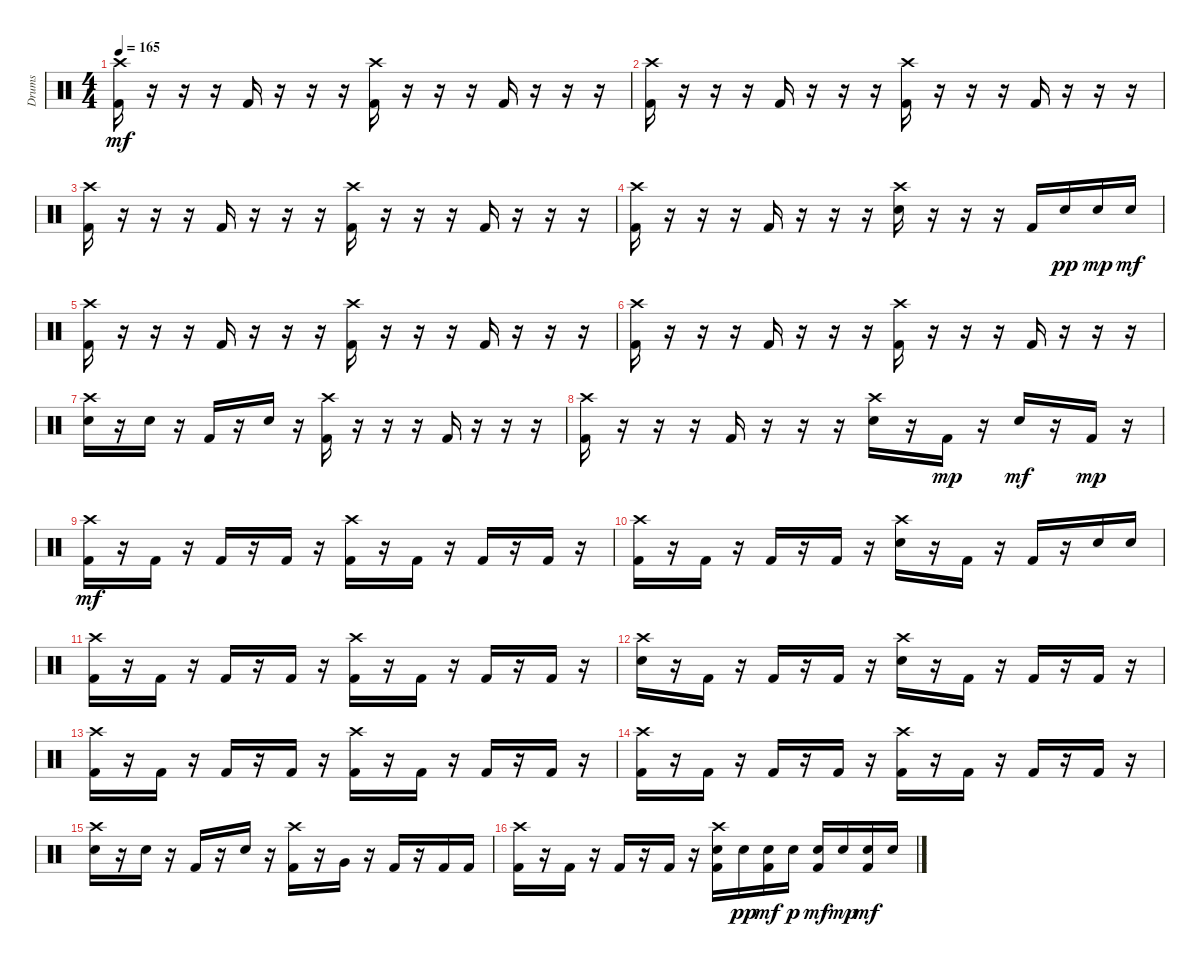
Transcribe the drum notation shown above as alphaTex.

\track ("Drums" "Drums") {instrument percussion}
\staff {score}
\articulation defaults
\ts (4 4)
\tempo 165
\clef neutral
\ks c
("Crash high (hit)" "Kick (hit) 2").16{dy mf} r.16 r.16 r.16 "Kick (hit) 2".16 r.16 r.16 r.16 ("Crash high (hit)" "Kick (hit) 2").16 r.16 r.16 r.16 "Kick (hit) 2".16 r.16 r.16 r.16 |
("Crash high (hit)" "Kick (hit) 2").16 r.16 r.16 r.16 "Kick (hit) 2".16 r.16 r.16 r.16 ("Crash high (hit)" "Kick (hit) 2").16 r.16 r.16 r.16 "Kick (hit) 2".16 r.16 r.16 r.16 |
("Crash high (hit)" "Kick (hit) 2").16 r.16 r.16 r.16 "Kick (hit) 2".16 r.16 r.16 r.16 ("Crash high (hit)" "Kick (hit) 2").16 r.16 r.16 r.16 "Kick (hit) 2".16 r.16 r.16 r.16 |
("Crash high (hit)" "Kick (hit) 2").16 r.16 r.16 r.16 "Kick (hit) 2".16 r.16 r.16 r.16 ("Crash high (hit)" "Electric Snare (hit)").16 r.16 r.16 r.16 "Kick (hit) 2".16 "Electric Snare (hit)".16{dy pp} "Electric Snare (hit)".16{dy mp} "Electric Snare (hit)".16{dy mf} |
("Crash high (hit)" "Kick (hit) 2").16 r.16 r.16 r.16 "Kick (hit) 2".16 r.16 r.16 r.16 ("Crash high (hit)" "Kick (hit) 2").16 r.16 r.16 r.16 "Kick (hit) 2".16 r.16 r.16 r.16 |
("Crash high (hit)" "Kick (hit) 2").16 r.16 r.16 r.16 "Kick (hit) 2".16 r.16 r.16 r.16 ("Crash high (hit)" "Kick (hit) 2").16 r.16 r.16 r.16 "Kick (hit) 2".16 r.16 r.16 r.16 |
("Crash high (hit)" "Electric Snare (hit)").16 r.16 "Electric Snare (hit)".16 r.16 "Kick (hit) 2".16 r.16 "Electric Snare (hit)".16 r.16 ("Crash high (hit)" "Kick (hit) 2").16 r.16 r.16 r.16 "Kick (hit) 2".16 r.16 r.16 r.16 |
("Crash high (hit)" "Kick (hit) 2").16 r.16 r.16 r.16 "Kick (hit) 2".16 r.16 r.16 r.16 ("Crash high (hit)" "Electric Snare (hit)").16 r.16 "Kick (hit) 2".16{dy mp} r.16 "Electric Snare (hit)".16{dy mf} r.16 "Kick (hit) 2".16{dy mp} r.16 |
("Crash high (hit)" "Kick (hit) 2").16{dy mf} r.16 "Kick (hit) 2".16 r.16 "Kick (hit) 2".16 r.16 "Kick (hit) 2".16 r.16 ("Crash high (hit)" "Kick (hit) 2").16 r.16 "Kick (hit) 2".16 r.16 "Kick (hit) 2".16 r.16 "Kick (hit) 2".16 r.16 |
("Crash high (hit)" "Kick (hit) 2").16 r.16 "Kick (hit) 2".16 r.16 "Kick (hit) 2".16 r.16 "Kick (hit) 2".16 r.16 ("Crash high (hit)" "Electric Snare (hit)").16 r.16 "Kick (hit) 2".16 r.16 "Kick (hit) 2".16 r.16 "Electric Snare (hit)".16 "Electric Snare (hit)".16 |
("Crash high (hit)" "Kick (hit) 2").16 r.16 "Kick (hit) 2".16 r.16 "Kick (hit) 2".16 r.16 "Kick (hit) 2".16 r.16 ("Crash high (hit)" "Kick (hit) 2").16 r.16 "Kick (hit) 2".16 r.16 "Kick (hit) 2".16 r.16 "Kick (hit) 2".16 r.16 |
("Crash high (hit)" "Electric Snare (hit)").16 r.16 "Kick (hit) 2".16 r.16 "Kick (hit) 2".16 r.16 "Kick (hit) 2".16 r.16 ("Crash high (hit)" "Electric Snare (hit)").16 r.16 "Kick (hit) 2".16 r.16 "Kick (hit) 2".16 r.16 "Kick (hit) 2".16 r.16 |
("Crash high (hit)" "Kick (hit) 2").16 r.16 "Kick (hit) 2".16 r.16 "Kick (hit) 2".16 r.16 "Kick (hit) 2".16 r.16 ("Crash high (hit)" "Kick (hit) 2").16 r.16 "Kick (hit) 2".16 r.16 "Kick (hit) 2".16 r.16 "Kick (hit) 2".16 r.16 |
("Crash high (hit)" "Kick (hit) 2").16 r.16 "Kick (hit) 2".16 r.16 "Kick (hit) 2".16 r.16 "Kick (hit) 2".16 r.16 ("Crash high (hit)" "Kick (hit) 2").16 r.16 "Kick (hit) 2".16 r.16 "Kick (hit) 2".16 r.16 "Kick (hit) 2".16 r.16 |
("Crash high (hit)" "Electric Snare (hit)").16 r.16 "Electric Snare (hit)".16 r.16 "Kick (hit) 2".16 r.16 "Electric Snare (hit)".16 r.16 ("Crash high (hit)" "Kick (hit) 2").16 r.16 "Very Low Tom (hit)".16 r.16 "Kick (hit) 2".16 r.16 "Kick (hit) 2".16 "Kick (hit) 2".16 |
("Crash high (hit)" "Kick (hit) 2").16 r.16 "Kick (hit) 2".16 r.16 "Kick (hit) 2".16 r.16 "Kick (hit) 2".16 r.16 ("Crash high (hit)" "Electric Snare (hit)" "Kick (hit) 2").16 "Electric Snare (hit)".16{dy pp} ("Electric Snare (hit)" "Kick (hit) 2").16{dy mf} "Electric Snare (hit)".16{dy p} ("Electric Snare (hit)" "Kick (hit) 2").16{dy mf} "Electric Snare (hit)".16{dy mp} ("Electric Snare (hit)" "Kick (hit) 2").16{dy mf} "Electric Snare (hit)".16
